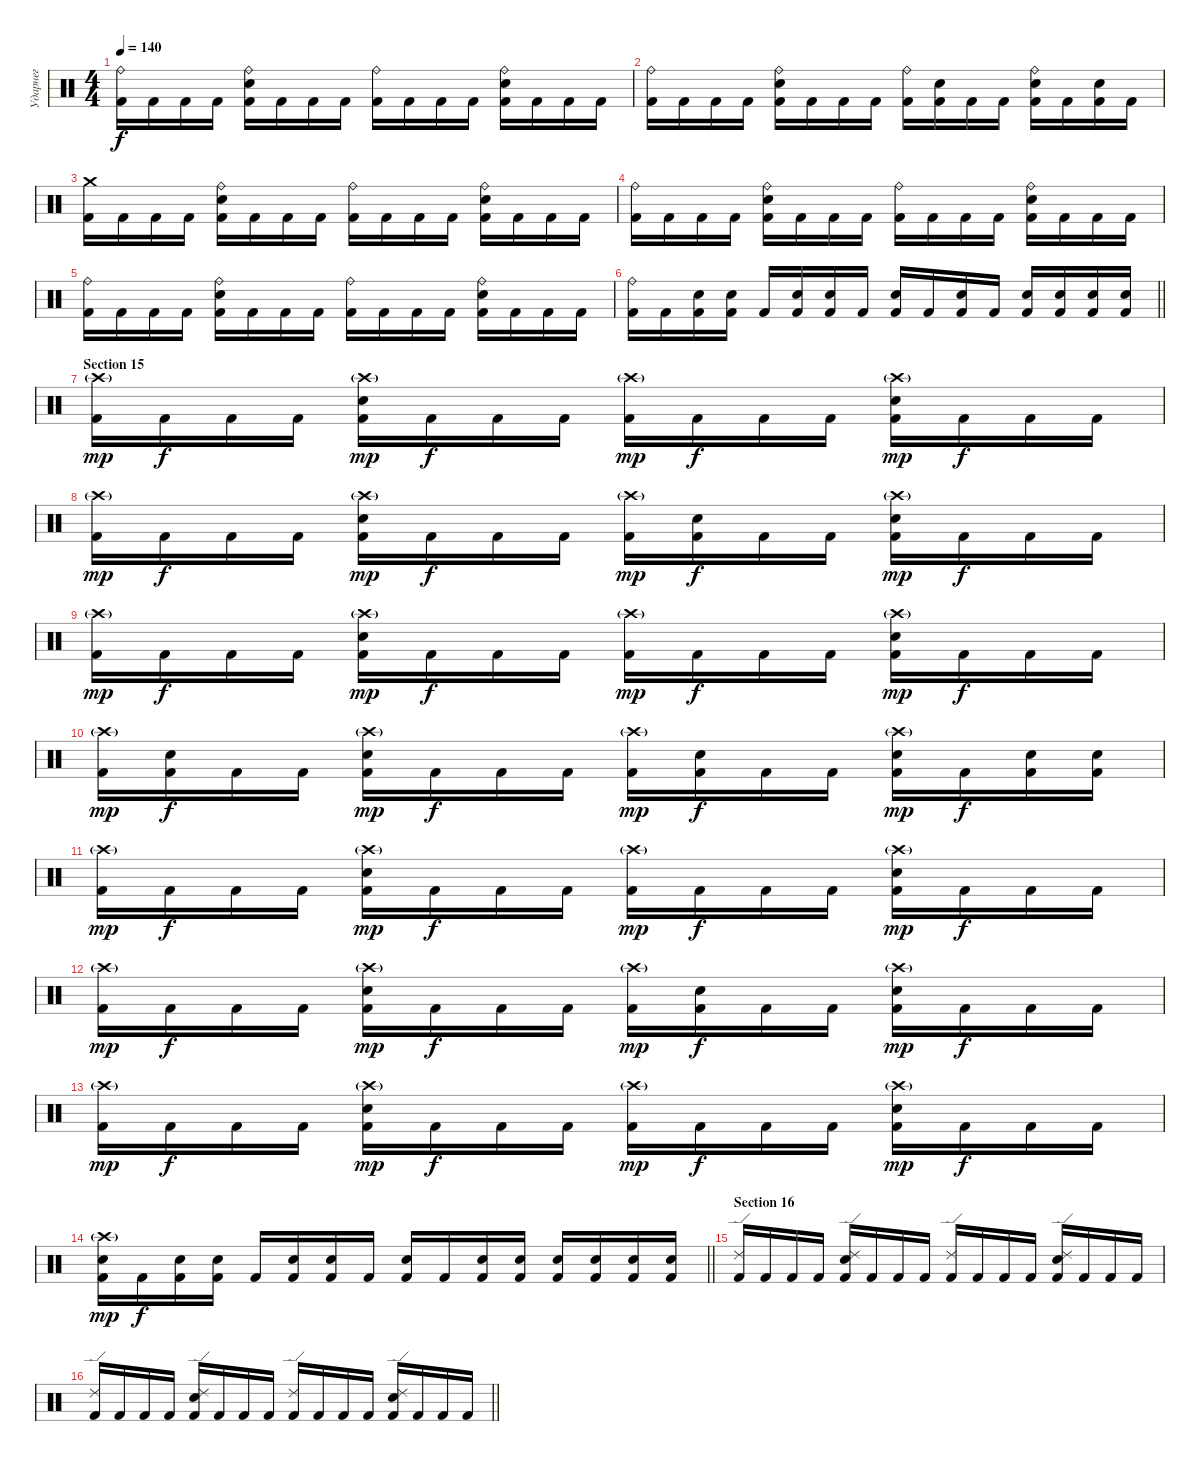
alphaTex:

\track ("Ударнег" "Ударнег") {instrument percussion}
\staff {score}
\articulation defaults
\ts (4 4)
\tempo 140
\clef neutral
\ks c
("Ride (bell)" "Kick (hit) 2").16{dy f} "Kick (hit) 2".16 "Kick (hit) 2".16 "Kick (hit) 2".16 ("Ride (bell)" "Snare (hit) 2" "Kick (hit) 2").16 "Kick (hit) 2".16 "Kick (hit) 2".16 "Kick (hit) 2".16 ("Ride (bell)" "Kick (hit) 2").16 "Kick (hit) 2".16 "Kick (hit) 2".16 "Kick (hit) 2".16 ("Ride (bell)" "Snare (hit) 2" "Kick (hit) 2").16 "Kick (hit) 2".16 "Kick (hit) 2".16 "Kick (hit) 2".16 |
("Ride (bell)" "Kick (hit) 2").16 "Kick (hit) 2".16 "Kick (hit) 2".16 "Kick (hit) 2".16 ("Ride (bell)" "Snare (hit) 2" "Kick (hit) 2").16 "Kick (hit) 2".16 "Kick (hit) 2".16 "Kick (hit) 2".16 ("Ride (bell)" "Kick (hit) 2").16 ("Snare (hit) 2" "Kick (hit) 2").16 "Kick (hit) 2".16 "Kick (hit) 2".16 ("Ride (bell)" "Snare (hit) 2" "Kick (hit) 2").16 "Kick (hit) 2".16 ("Snare (hit) 2" "Kick (hit) 2").16 "Kick (hit) 2".16 |
("Crash medium (hit)" "Kick (hit) 2").16 "Kick (hit) 2".16 "Kick (hit) 2".16 "Kick (hit) 2".16 ("Ride (bell)" "Snare (hit) 2" "Kick (hit) 2").16 "Kick (hit) 2".16 "Kick (hit) 2".16 "Kick (hit) 2".16 ("Ride (bell)" "Kick (hit) 2").16 "Kick (hit) 2".16 "Kick (hit) 2".16 "Kick (hit) 2".16 ("Ride (bell)" "Snare (hit) 2" "Kick (hit) 2").16 "Kick (hit) 2".16 "Kick (hit) 2".16 "Kick (hit) 2".16 |
("Ride (bell)" "Kick (hit) 2").16 "Kick (hit) 2".16 "Kick (hit) 2".16 "Kick (hit) 2".16 ("Ride (bell)" "Snare (hit) 2" "Kick (hit) 2").16 "Kick (hit) 2".16 "Kick (hit) 2".16 "Kick (hit) 2".16 ("Ride (bell)" "Kick (hit) 2").16 "Kick (hit) 2".16 "Kick (hit) 2".16 "Kick (hit) 2".16 ("Ride (bell)" "Snare (hit) 2" "Kick (hit) 2").16 "Kick (hit) 2".16 "Kick (hit) 2".16 "Kick (hit) 2".16 |
("Ride (bell)" "Kick (hit) 2").16 "Kick (hit) 2".16 "Kick (hit) 2".16 "Kick (hit) 2".16 ("Ride (bell)" "Snare (hit) 2" "Kick (hit) 2").16 "Kick (hit) 2".16 "Kick (hit) 2".16 "Kick (hit) 2".16 ("Ride (bell)" "Kick (hit) 2").16 "Kick (hit) 2".16 "Kick (hit) 2".16 "Kick (hit) 2".16 ("Ride (bell)" "Snare (hit) 2" "Kick (hit) 2").16 "Kick (hit) 2".16 "Kick (hit) 2".16 "Kick (hit) 2".16 |
\barLineRight lightlight
("Ride (bell)" "Kick (hit) 2").16 "Kick (hit) 2".16 ("Snare (hit) 2" "Kick (hit) 2").16 ("Snare (hit) 2" "Kick (hit) 2").16 "Kick (hit) 2".16 ("Snare (hit) 2" "Kick (hit) 2").16 ("Snare (hit) 2" "Kick (hit) 2").16 "Kick (hit) 2".16 ("Snare (hit) 2" "Kick (hit) 2").16 "Kick (hit) 2".16 ("Snare (hit) 2" "Kick (hit) 2").16 "Kick (hit) 2".16 ("Snare (hit) 2" "Kick (hit) 2").16 ("Snare (hit) 2" "Kick (hit) 2").16 ("Snare (hit) 2" "Kick (hit) 2").16 ("Snare (hit) 2" "Kick (hit) 2").16 |
\section ("" "Section 15")
("Crash high (hit)"{g} "Kick (hit) 2").16{dy mp} "Kick (hit) 2".16{dy f} "Kick (hit) 2".16 "Kick (hit) 2".16 ("Crash high (hit)"{g} "Snare (hit) 2" "Kick (hit) 2").16{dy mp} "Kick (hit) 2".16{dy f} "Kick (hit) 2".16 "Kick (hit) 2".16 ("Crash high (hit)"{g} "Kick (hit) 2").16{dy mp} "Kick (hit) 2".16{dy f} "Kick (hit) 2".16 "Kick (hit) 2".16 ("Crash high (hit)"{g} "Snare (hit) 2" "Kick (hit) 2").16{dy mp} "Kick (hit) 2".16{dy f} "Kick (hit) 2".16 "Kick (hit) 2".16 |
("Crash high (hit)"{g} "Kick (hit) 2").16{dy mp} "Kick (hit) 2".16{dy f} "Kick (hit) 2".16 "Kick (hit) 2".16 ("Crash high (hit)"{g} "Snare (hit) 2" "Kick (hit) 2").16{dy mp} "Kick (hit) 2".16{dy f} "Kick (hit) 2".16 "Kick (hit) 2".16 ("Crash high (hit)"{g} "Kick (hit) 2").16{dy mp} ("Snare (hit) 2" "Kick (hit) 2").16{dy f} "Kick (hit) 2".16 "Kick (hit) 2".16 ("Crash high (hit)"{g} "Snare (hit) 2" "Kick (hit) 2").16{dy mp} "Kick (hit) 2".16{dy f} "Kick (hit) 2".16 "Kick (hit) 2".16 |
("Crash high (hit)"{g} "Kick (hit) 2").16{dy mp} "Kick (hit) 2".16{dy f} "Kick (hit) 2".16 "Kick (hit) 2".16 ("Crash high (hit)"{g} "Snare (hit) 2" "Kick (hit) 2").16{dy mp} "Kick (hit) 2".16{dy f} "Kick (hit) 2".16 "Kick (hit) 2".16 ("Crash high (hit)"{g} "Kick (hit) 2").16{dy mp} "Kick (hit) 2".16{dy f} "Kick (hit) 2".16 "Kick (hit) 2".16 ("Crash high (hit)"{g} "Snare (hit) 2" "Kick (hit) 2").16{dy mp} "Kick (hit) 2".16{dy f} "Kick (hit) 2".16 "Kick (hit) 2".16 |
("Crash high (hit)"{g} "Kick (hit) 2").16{dy mp} ("Snare (hit) 2" "Kick (hit) 2").16{dy f} "Kick (hit) 2".16 "Kick (hit) 2".16 ("Crash high (hit)"{g} "Snare (hit) 2" "Kick (hit) 2").16{dy mp} "Kick (hit) 2".16{dy f} "Kick (hit) 2".16 "Kick (hit) 2".16 ("Crash high (hit)"{g} "Kick (hit) 2").16{dy mp} ("Snare (hit) 2" "Kick (hit) 2").16{dy f} "Kick (hit) 2".16 "Kick (hit) 2".16 ("Crash high (hit)"{g} "Snare (hit) 2" "Kick (hit) 2").16{dy mp} "Kick (hit) 2".16{dy f} ("Snare (hit) 2" "Kick (hit) 2").16 ("Snare (hit) 2" "Kick (hit) 2").16 |
("Crash high (hit)"{g} "Kick (hit) 2").16{dy mp} "Kick (hit) 2".16{dy f} "Kick (hit) 2".16 "Kick (hit) 2".16 ("Crash high (hit)"{g} "Snare (hit) 2" "Kick (hit) 2").16{dy mp} "Kick (hit) 2".16{dy f} "Kick (hit) 2".16 "Kick (hit) 2".16 ("Crash high (hit)"{g} "Kick (hit) 2").16{dy mp} "Kick (hit) 2".16{dy f} "Kick (hit) 2".16 "Kick (hit) 2".16 ("Crash high (hit)"{g} "Snare (hit) 2" "Kick (hit) 2").16{dy mp} "Kick (hit) 2".16{dy f} "Kick (hit) 2".16 "Kick (hit) 2".16 |
("Crash high (hit)"{g} "Kick (hit) 2").16{dy mp} "Kick (hit) 2".16{dy f} "Kick (hit) 2".16 "Kick (hit) 2".16 ("Crash high (hit)"{g} "Snare (hit) 2" "Kick (hit) 2").16{dy mp} "Kick (hit) 2".16{dy f} "Kick (hit) 2".16 "Kick (hit) 2".16 ("Crash high (hit)"{g} "Kick (hit) 2").16{dy mp} ("Snare (hit) 2" "Kick (hit) 2").16{dy f} "Kick (hit) 2".16 "Kick (hit) 2".16 ("Crash high (hit)"{g} "Snare (hit) 2" "Kick (hit) 2").16{dy mp} "Kick (hit) 2".16{dy f} "Kick (hit) 2".16 "Kick (hit) 2".16 |
("Crash high (hit)"{g} "Kick (hit) 2").16{dy mp} "Kick (hit) 2".16{dy f} "Kick (hit) 2".16 "Kick (hit) 2".16 ("Crash high (hit)"{g} "Snare (hit) 2" "Kick (hit) 2").16{dy mp} "Kick (hit) 2".16{dy f} "Kick (hit) 2".16 "Kick (hit) 2".16 ("Crash high (hit)"{g} "Kick (hit) 2").16{dy mp} "Kick (hit) 2".16{dy f} "Kick (hit) 2".16 "Kick (hit) 2".16 ("Crash high (hit)"{g} "Snare (hit) 2" "Kick (hit) 2").16{dy mp} "Kick (hit) 2".16{dy f} "Kick (hit) 2".16 "Kick (hit) 2".16 |
\barLineRight lightlight
("Crash high (hit)"{g} "Snare (hit) 2" "Kick (hit) 2").16{dy mp} "Kick (hit) 2".16{dy f} ("Snare (hit) 2" "Kick (hit) 2").16 ("Snare (hit) 2" "Kick (hit) 2").16 "Kick (hit) 2".16 ("Snare (hit) 2" "Kick (hit) 2").16 ("Snare (hit) 2" "Kick (hit) 2").16 "Kick (hit) 2".16 ("Snare (hit) 2" "Kick (hit) 2").16 "Kick (hit) 2".16 ("Snare (hit) 2" "Kick (hit) 2").16 ("Snare (hit) 2" "Kick (hit) 2").16 ("Snare (hit) 2" "Kick (hit) 2").16 ("Snare (hit) 2" "Kick (hit) 2").16 ("Snare (hit) 2" "Kick (hit) 2").16 ("Snare (hit) 2" "Kick (hit) 2").16 |
\section ("" "Section 16")
("Ride (edge) 2" "Kick (hit) 2").16 "Kick (hit) 2".16 "Kick (hit) 2".16 "Kick (hit) 2".16 ("Ride (edge) 2" "Snare (hit) 2" "Kick (hit) 2").16 "Kick (hit) 2".16 "Kick (hit) 2".16 "Kick (hit) 2".16 ("Ride (edge) 2" "Kick (hit) 2").16 "Kick (hit) 2".16 "Kick (hit) 2".16 "Kick (hit) 2".16 ("Ride (edge) 2" "Snare (hit) 2" "Kick (hit) 2").16 "Kick (hit) 2".16 "Kick (hit) 2".16 "Kick (hit) 2".16 |
\barLineRight lightlight
("Ride (edge) 2" "Kick (hit) 2").16 "Kick (hit) 2".16 "Kick (hit) 2".16 "Kick (hit) 2".16 ("Ride (edge) 2" "Snare (hit) 2" "Kick (hit) 2").16 "Kick (hit) 2".16 "Kick (hit) 2".16 "Kick (hit) 2".16 ("Ride (edge) 2" "Kick (hit) 2").16 "Kick (hit) 2".16 "Kick (hit) 2".16 "Kick (hit) 2".16 ("Ride (edge) 2" "Snare (hit) 2" "Kick (hit) 2").16 "Kick (hit) 2".16 "Kick (hit) 2".16 "Kick (hit) 2".16
